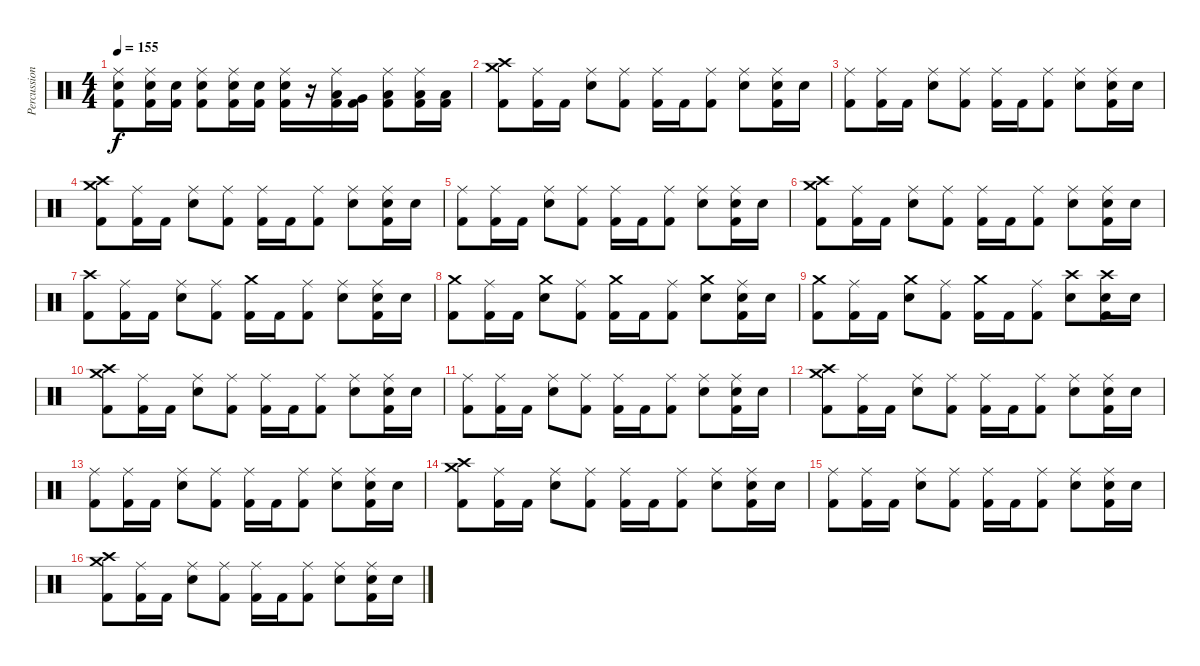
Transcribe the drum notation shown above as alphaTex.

\track ("Percussion" "Percussion") {instrument percussion}
\staff {score}
\articulation defaults
\ts (4 4)
\tempo 155
\clef neutral
\ks c
("Ride (middle)" "Electric Snare (hit)" "Kick (hit) 2").8{dy f} ("Ride (middle)" "Electric Snare (hit)" "Kick (hit) 2").16 ("Electric Snare (hit)" "Kick (hit) 2").16 ("Ride (middle)" "Electric Snare (hit)" "Kick (hit) 2").8 ("Ride (middle)" "Electric Snare (hit)" "Kick (hit) 2").16 ("Electric Snare (hit)" "Kick (hit) 2").16 ("Ride (middle)" "Electric Snare (hit)" "Kick (hit) 2").16 r.16 ("Ride (middle)" "Low Tom (hit)" "Kick (hit) 2").16 ("Very Low Tom (hit)" "Kick (hit) 2").16 ("Ride (middle)" "Low Floor Tom (hit)" "Kick (hit) 2").8 ("Ride (middle)" "Low Floor Tom (hit)" "Kick (hit) 2").16 ("Low Floor Tom (hit)" "Kick (hit) 2").16 |
("Crash medium (hit)" "Crash high (hit)" "Kick (hit) 2").8 ("Ride (middle)" "Kick (hit) 2").16 "Kick (hit) 2".16 ("Ride (middle)" "Electric Snare (hit)").8 ("Ride (middle)" "Kick (hit) 2").8 ("Ride (middle)" "Kick (hit) 2").16 "Kick (hit) 2".16 ("Ride (middle)" "Kick (hit) 2").8 ("Ride (middle)" "Electric Snare (hit)").8 ("Ride (middle)" "Electric Snare (hit)" "Kick (hit) 2").16 "Electric Snare (hit)".16 |
("Ride (middle)" "Kick (hit) 2").8 ("Ride (middle)" "Kick (hit) 2").16 "Kick (hit) 2".16 ("Ride (middle)" "Electric Snare (hit)").8 ("Ride (middle)" "Kick (hit) 2").8 ("Ride (middle)" "Kick (hit) 2").16 "Kick (hit) 2".16 ("Ride (middle)" "Kick (hit) 2").8 ("Ride (middle)" "Electric Snare (hit)").8 ("Ride (middle)" "Electric Snare (hit)" "Kick (hit) 2").16 "Electric Snare (hit)".16 |
("Crash medium (hit)" "Crash high (hit)" "Kick (hit) 2").8 ("Ride (middle)" "Kick (hit) 2").16 "Kick (hit) 2".16 ("Ride (middle)" "Electric Snare (hit)").8 ("Ride (middle)" "Kick (hit) 2").8 ("Ride (middle)" "Kick (hit) 2").16 "Kick (hit) 2".16 ("Ride (middle)" "Kick (hit) 2").8 ("Ride (middle)" "Electric Snare (hit)").8 ("Ride (middle)" "Electric Snare (hit)" "Kick (hit) 2").16 "Electric Snare (hit)".16 |
("Ride (middle)" "Kick (hit) 2").8 ("Ride (middle)" "Kick (hit) 2").16 "Kick (hit) 2".16 ("Ride (middle)" "Electric Snare (hit)").8 ("Ride (middle)" "Kick (hit) 2").8 ("Ride (middle)" "Kick (hit) 2").16 "Kick (hit) 2".16 ("Ride (middle)" "Kick (hit) 2").8 ("Ride (middle)" "Electric Snare (hit)").8 ("Ride (middle)" "Electric Snare (hit)" "Kick (hit) 2").16 "Electric Snare (hit)".16 |
("Crash medium (hit)" "Crash high (hit)" "Kick (hit) 2").8 ("Ride (middle)" "Kick (hit) 2").16 "Kick (hit) 2".16 ("Ride (middle)" "Electric Snare (hit)").8 ("Ride (middle)" "Kick (hit) 2").8 ("Ride (middle)" "Kick (hit) 2").16 "Kick (hit) 2".16 ("Ride (middle)" "Kick (hit) 2").8 ("Ride (middle)" "Electric Snare (hit)").8 ("Ride (middle)" "Electric Snare (hit)" "Kick (hit) 2").16 "Electric Snare (hit)".16 |
("Crash high (hit)" "Kick (hit) 2").8 ("Ride (middle)" "Kick (hit) 2").16 "Kick (hit) 2".16 ("Ride (middle)" "Electric Snare (hit)").8 ("Ride (middle)" "Kick (hit) 2").8 ("Crash medium (hit)" "Kick (hit) 2").16 "Kick (hit) 2".16 ("Ride (middle)" "Kick (hit) 2").8 ("Ride (middle)" "Electric Snare (hit)").8 ("Ride (middle)" "Electric Snare (hit)" "Kick (hit) 2").16 "Electric Snare (hit)".16 |
("Crash medium (hit)" "Kick (hit) 2").8 ("Ride (middle)" "Kick (hit) 2").16 "Kick (hit) 2".16 ("Crash medium (hit)" "Electric Snare (hit)").8 ("Ride (middle)" "Kick (hit) 2").8 ("Crash medium (hit)" "Kick (hit) 2").16 "Kick (hit) 2".16 ("Ride (middle)" "Kick (hit) 2").8 ("Crash medium (hit)" "Electric Snare (hit)").8 ("Ride (middle)" "Electric Snare (hit)" "Kick (hit) 2").16 "Electric Snare (hit)".16 |
("Crash medium (hit)" "Kick (hit) 2").8 ("Ride (middle)" "Kick (hit) 2").16 "Kick (hit) 2".16 ("Crash medium (hit)" "Electric Snare (hit)").8 ("Ride (middle)" "Kick (hit) 2").8 ("Crash medium (hit)" "Kick (hit) 2").16 "Kick (hit) 2".16 ("Ride (middle)" "Kick (hit) 2").8 ("Crash high (hit)" "Electric Snare (hit)").8 ("Crash high (hit)" "Electric Snare (hit)" "Kick (hit) 2").16 "Electric Snare (hit)".16 |
("Crash medium (hit)" "Crash high (hit)" "Kick (hit) 2").8 ("Ride (middle)" "Kick (hit) 2").16 "Kick (hit) 2".16 ("Ride (middle)" "Electric Snare (hit)").8 ("Ride (middle)" "Kick (hit) 2").8 ("Ride (middle)" "Kick (hit) 2").16 "Kick (hit) 2".16 ("Ride (middle)" "Kick (hit) 2").8 ("Ride (middle)" "Electric Snare (hit)").8 ("Ride (middle)" "Electric Snare (hit)" "Kick (hit) 2").16 "Electric Snare (hit)".16 |
("Ride (middle)" "Kick (hit) 2").8 ("Ride (middle)" "Kick (hit) 2").16 "Kick (hit) 2".16 ("Ride (middle)" "Electric Snare (hit)").8 ("Ride (middle)" "Kick (hit) 2").8 ("Ride (middle)" "Kick (hit) 2").16 "Kick (hit) 2".16 ("Ride (middle)" "Kick (hit) 2").8 ("Ride (middle)" "Electric Snare (hit)").8 ("Ride (middle)" "Electric Snare (hit)" "Kick (hit) 2").16 "Electric Snare (hit)".16 |
("Crash medium (hit)" "Crash high (hit)" "Kick (hit) 2").8 ("Ride (middle)" "Kick (hit) 2").16 "Kick (hit) 2".16 ("Ride (middle)" "Electric Snare (hit)").8 ("Ride (middle)" "Kick (hit) 2").8 ("Ride (middle)" "Kick (hit) 2").16 "Kick (hit) 2".16 ("Ride (middle)" "Kick (hit) 2").8 ("Ride (middle)" "Electric Snare (hit)").8 ("Ride (middle)" "Electric Snare (hit)" "Kick (hit) 2").16 "Electric Snare (hit)".16 |
("Ride (middle)" "Kick (hit) 2").8 ("Ride (middle)" "Kick (hit) 2").16 "Kick (hit) 2".16 ("Ride (middle)" "Electric Snare (hit)").8 ("Ride (middle)" "Kick (hit) 2").8 ("Ride (middle)" "Kick (hit) 2").16 "Kick (hit) 2".16 ("Ride (middle)" "Kick (hit) 2").8 ("Ride (middle)" "Electric Snare (hit)").8 ("Ride (middle)" "Electric Snare (hit)" "Kick (hit) 2").16 "Electric Snare (hit)".16 |
("Crash medium (hit)" "Crash high (hit)" "Kick (hit) 2").8 ("Ride (middle)" "Kick (hit) 2").16 "Kick (hit) 2".16 ("Ride (middle)" "Electric Snare (hit)").8 ("Ride (middle)" "Kick (hit) 2").8 ("Ride (middle)" "Kick (hit) 2").16 "Kick (hit) 2".16 ("Ride (middle)" "Kick (hit) 2").8 ("Ride (middle)" "Electric Snare (hit)").8 ("Ride (middle)" "Electric Snare (hit)" "Kick (hit) 2").16 "Electric Snare (hit)".16 |
("Ride (middle)" "Kick (hit) 2").8 ("Ride (middle)" "Kick (hit) 2").16 "Kick (hit) 2".16 ("Ride (middle)" "Electric Snare (hit)").8 ("Ride (middle)" "Kick (hit) 2").8 ("Ride (middle)" "Kick (hit) 2").16 "Kick (hit) 2".16 ("Ride (middle)" "Kick (hit) 2").8 ("Ride (middle)" "Electric Snare (hit)").8 ("Ride (middle)" "Electric Snare (hit)" "Kick (hit) 2").16 "Electric Snare (hit)".16 |
("Crash medium (hit)" "Crash high (hit)" "Kick (hit) 2").8 ("Ride (middle)" "Kick (hit) 2").16 "Kick (hit) 2".16 ("Ride (middle)" "Electric Snare (hit)").8 ("Ride (middle)" "Kick (hit) 2").8 ("Ride (middle)" "Kick (hit) 2").16 "Kick (hit) 2".16 ("Ride (middle)" "Kick (hit) 2").8 ("Ride (middle)" "Electric Snare (hit)").8 ("Ride (middle)" "Electric Snare (hit)" "Kick (hit) 2").16 "Electric Snare (hit)".16
